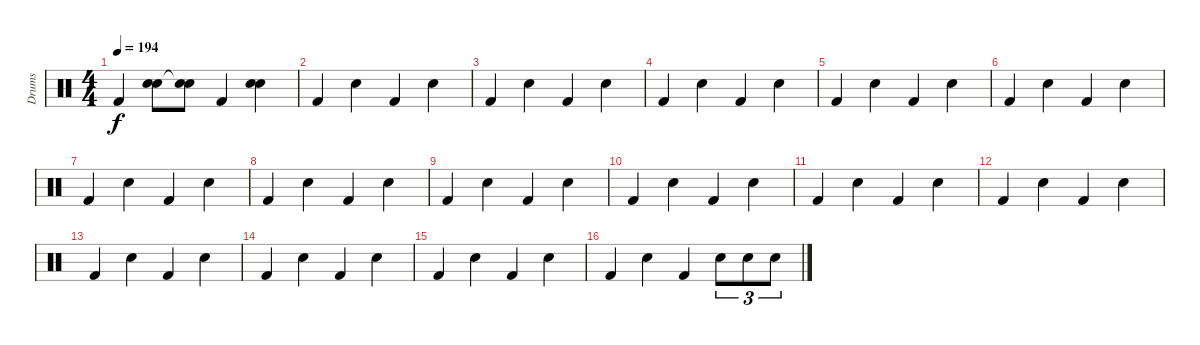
\track ("Drums" "Drums") {instrument percussion}
\staff {score}
\articulation defaults
\ts (4 4)
\tempo 194
\clef neutral
\ks c "Kick (hit) 2".4{dy f}
("Snare (hit) 2" "Hand Clap (hit)").8 ("Snare (hit)"{t} "Hand Clap (hit)").8 "Kick (hit) 2".4 ("Snare (hit) 2" "Hand Clap (hit)").4 |
"Kick (hit) 2".4 "Snare (hit) 2".4 "Kick (hit) 2".4 "Snare (hit) 2".4 |
"Kick (hit) 2".4 "Snare (hit) 2".4 "Kick (hit) 2".4 "Snare (hit) 2".4 |
"Kick (hit) 2".4 "Snare (hit) 2".4 "Kick (hit) 2".4 "Snare (hit) 2".4 |
"Kick (hit) 2".4 "Snare (hit) 2".4 "Kick (hit) 2".4 "Snare (hit) 2".4 |
"Kick (hit) 2".4 "Snare (hit) 2".4 "Kick (hit) 2".4 "Snare (hit) 2".4 |
"Kick (hit) 2".4 "Snare (hit) 2".4 "Kick (hit) 2".4 "Snare (hit) 2".4 |
"Kick (hit) 2".4 "Snare (hit) 2".4 "Kick (hit) 2".4 "Snare (hit) 2".4 |
"Kick (hit) 2".4 "Snare (hit) 2".4 "Kick (hit) 2".4 "Snare (hit) 2".4 |
"Kick (hit) 2".4 "Snare (hit) 2".4 "Kick (hit) 2".4 "Snare (hit) 2".4 |
"Kick (hit) 2".4 "Snare (hit) 2".4 "Kick (hit) 2".4 "Snare (hit) 2".4 |
"Kick (hit) 2".4 "Snare (hit) 2".4 "Kick (hit) 2".4 "Snare (hit) 2".4 |
"Kick (hit) 2".4 "Snare (hit) 2".4 "Kick (hit) 2".4 "Snare (hit) 2".4 |
"Kick (hit) 2".4 "Snare (hit) 2".4 "Kick (hit) 2".4 "Snare (hit) 2".4 |
"Kick (hit) 2".4 "Snare (hit) 2".4 "Kick (hit) 2".4 "Snare (hit) 2".4 |
"Kick (hit) 2".4 "Snare (hit) 2".4 "Kick (hit) 2".4 "Snare (hit) 2".8{tu (3 2)} "Snare (hit) 2".8{tu (3 2)} "Snare (hit) 2".8{tu (3 2)}
